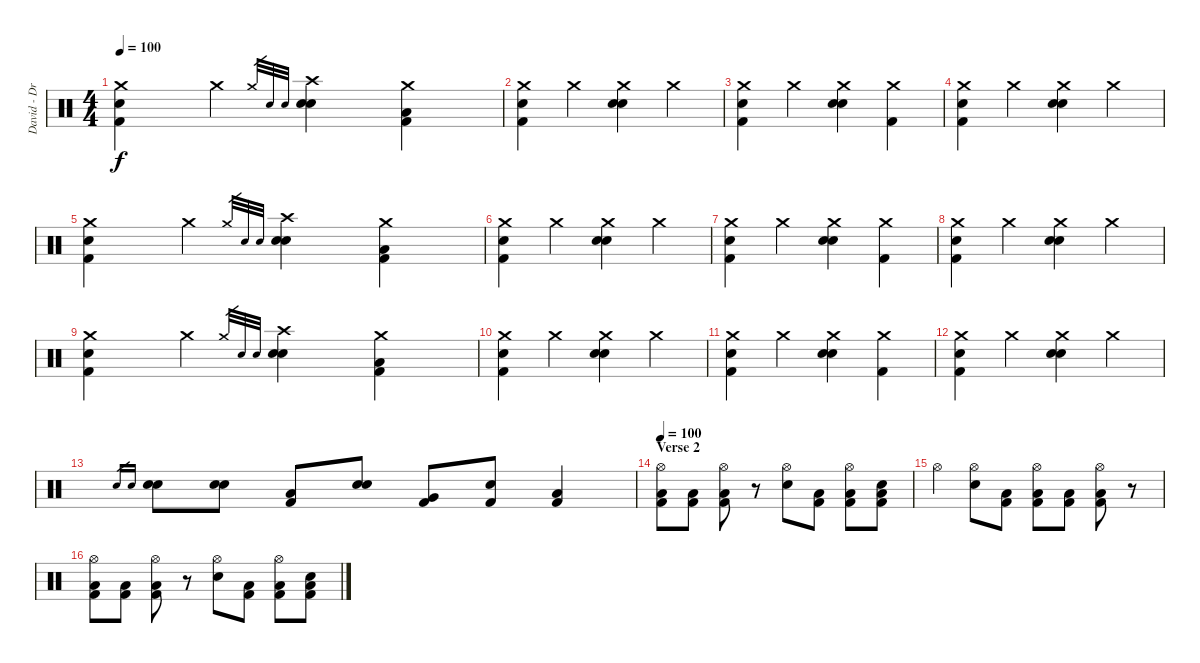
\track ("David - Drums" "David - Dr") {instrument percussion}
\staff {score}
\articulation defaults
\ts (4 4)
\tempo 100
\clef neutral
\ks c
("Crash medium (hit)" "Snare (hit) 2" "Kick (hit) 2").4{dy f} "Crash medium (hit)".4 "Crash medium (hit)".32{gr} "Electric Snare (hit)".32{gr} "Snare (hit) 2".32{gr} ("Crash high (hit)" "Electric Snare (hit)" "Snare (hit) 2").4 ("Crash medium (hit)" "Low Floor Tom (hit)" "Kick (hit) 2").4 |
("Crash medium (hit)" "Snare (hit) 2" "Kick (hit) 2").4 "Crash medium (hit)".4 ("Crash medium (hit)" "Electric Snare (hit)" "Snare (hit) 2").4 "Crash medium (hit)".4 |
("Crash medium (hit)" "Snare (hit) 2" "Kick (hit) 2").4 "Crash medium (hit)".4 ("Crash medium (hit)" "Electric Snare (hit)" "Snare (hit) 2").4 ("Crash medium (hit)" "Kick (hit) 2").4 |
("Crash medium (hit)" "Snare (hit) 2" "Kick (hit) 2").4 "Crash medium (hit)".4 ("Crash medium (hit)" "Electric Snare (hit)" "Snare (hit) 2").4 "Crash medium (hit)".4 |
("Crash medium (hit)" "Snare (hit) 2" "Kick (hit) 2").4 "Crash medium (hit)".4 "Crash medium (hit)".32{gr} "Electric Snare (hit)".32{gr} "Snare (hit) 2".32{gr} ("Crash high (hit)" "Electric Snare (hit)" "Snare (hit) 2").4 ("Crash medium (hit)" "Low Floor Tom (hit)" "Kick (hit) 2").4 |
("Crash medium (hit)" "Snare (hit) 2" "Kick (hit) 2").4 "Crash medium (hit)".4 ("Crash medium (hit)" "Electric Snare (hit)" "Snare (hit) 2").4 "Crash medium (hit)".4 |
("Crash medium (hit)" "Snare (hit) 2" "Kick (hit) 2").4 "Crash medium (hit)".4 ("Crash medium (hit)" "Electric Snare (hit)" "Snare (hit) 2").4 ("Crash medium (hit)" "Kick (hit) 2").4 |
("Crash medium (hit)" "Snare (hit) 2" "Kick (hit) 2").4 "Crash medium (hit)".4 ("Crash medium (hit)" "Electric Snare (hit)" "Snare (hit) 2").4 "Crash medium (hit)".4 |
("Crash medium (hit)" "Snare (hit) 2" "Kick (hit) 2").4 "Crash medium (hit)".4 "Crash medium (hit)".32{gr} "Electric Snare (hit)".32{gr} "Snare (hit) 2".32{gr} ("Crash high (hit)" "Electric Snare (hit)" "Snare (hit) 2").4 ("Crash medium (hit)" "Low Floor Tom (hit)" "Kick (hit) 2").4 |
("Crash medium (hit)" "Snare (hit) 2" "Kick (hit) 2").4 "Crash medium (hit)".4 ("Crash medium (hit)" "Electric Snare (hit)" "Snare (hit) 2").4 "Crash medium (hit)".4 |
("Crash medium (hit)" "Snare (hit) 2" "Kick (hit) 2").4 "Crash medium (hit)".4 ("Crash medium (hit)" "Electric Snare (hit)" "Snare (hit) 2").4 ("Crash medium (hit)" "Kick (hit) 2").4 |
("Crash medium (hit)" "Snare (hit) 2" "Kick (hit) 2").4 "Crash medium (hit)".4 ("Crash medium (hit)" "Electric Snare (hit)" "Snare (hit) 2").4 "Crash medium (hit)".4 |
"Electric Snare (hit)".16{gr} "Snare (hit) 2".16{gr} ("Electric Snare (hit)" "Snare (hit) 2").8 ("Electric Snare (hit)" "Snare (hit) 2").8 ("Low Floor Tom (hit)" "Kick (hit) 2").8 ("Electric Snare (hit)" "Snare (hit) 2").8 ("Very Low Tom (hit)" "Kick (hit) 2").8 ("Snare (hit) 2" "Kick (hit) 2").8 ("Low Floor Tom (hit)" "Kick (hit) 2").4 |
\section ("" "Verse 2")
\tempo 100
("Hi-Hat (open)" "Low Floor Tom (hit)" "Kick (hit) 2").8{volume 16 balance 8} ("Low Floor Tom (hit)" "Kick (hit) 2").8 ("Hi-Hat (open)" "Low Floor Tom (hit)" "Kick (hit) 2").8 r.8 ("Hi-Hat (open)" "Electric Snare (hit)").8 ("Low Floor Tom (hit)" "Kick (hit) 2").8 ("Hi-Hat (open)" "Low Floor Tom (hit)" "Kick (hit) 2").8 ("Electric Snare (hit)" "Low Floor Tom (hit)" "Kick (hit) 2").8 |
"Hi-Hat (open)".4 ("Hi-Hat (open)" "Electric Snare (hit)").8 ("Low Floor Tom (hit)" "Kick (hit) 2").8 ("Hi-Hat (open)" "Low Floor Tom (hit)" "Kick (hit) 2").8 ("Low Floor Tom (hit)" "Kick (hit) 2").8 ("Hi-Hat (open)" "Low Floor Tom (hit)" "Kick (hit) 2").8 r.8 |
("Hi-Hat (open)" "Low Floor Tom (hit)" "Kick (hit) 2").8 ("Low Floor Tom (hit)" "Kick (hit) 2").8 ("Hi-Hat (open)" "Low Floor Tom (hit)" "Kick (hit) 2").8 r.8 ("Hi-Hat (open)" "Electric Snare (hit)").8 ("Low Floor Tom (hit)" "Kick (hit) 2").8 ("Hi-Hat (open)" "Low Floor Tom (hit)" "Kick (hit) 2").8 ("Electric Snare (hit)" "Low Floor Tom (hit)" "Kick (hit) 2").8
